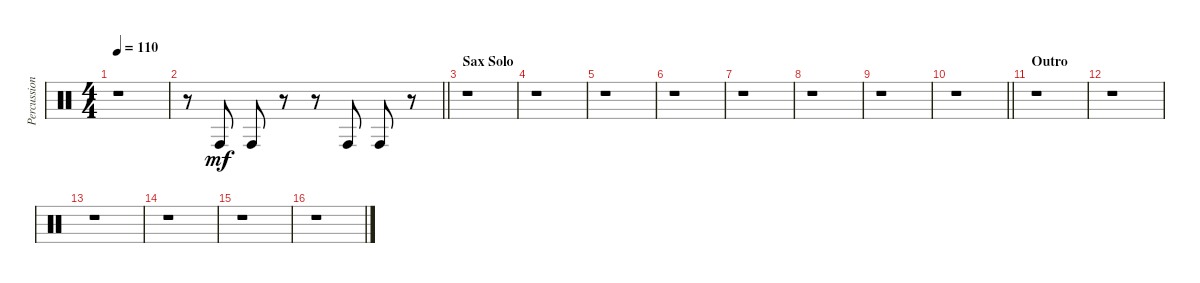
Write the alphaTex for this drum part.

\track ("Percussion" "Percussion") {instrument percussion}
\staff {score}
\articulation defaults
\ts (4 4)
\tempo 110
\clef neutral
\ks c
r.1{dy mp} |
\barLineRight lightlight
r.8{balance 1} "Conga high (hit)".8{dy mf} "Conga high (hit)".8 r.8 r.8 "Conga high (hit)".8 "Conga high (hit)".8 r.8 |
\section ("" "Sax Solo")
r.1 |
r.1 |
r.1 |
r.1 |
r.1 |
r.1 |
r.1 |
\barLineRight lightlight
r.1 |
\section ("" "Outro")
r.1 |
r.1 |
r.1 |
r.1 |
r.1 |
r.1
